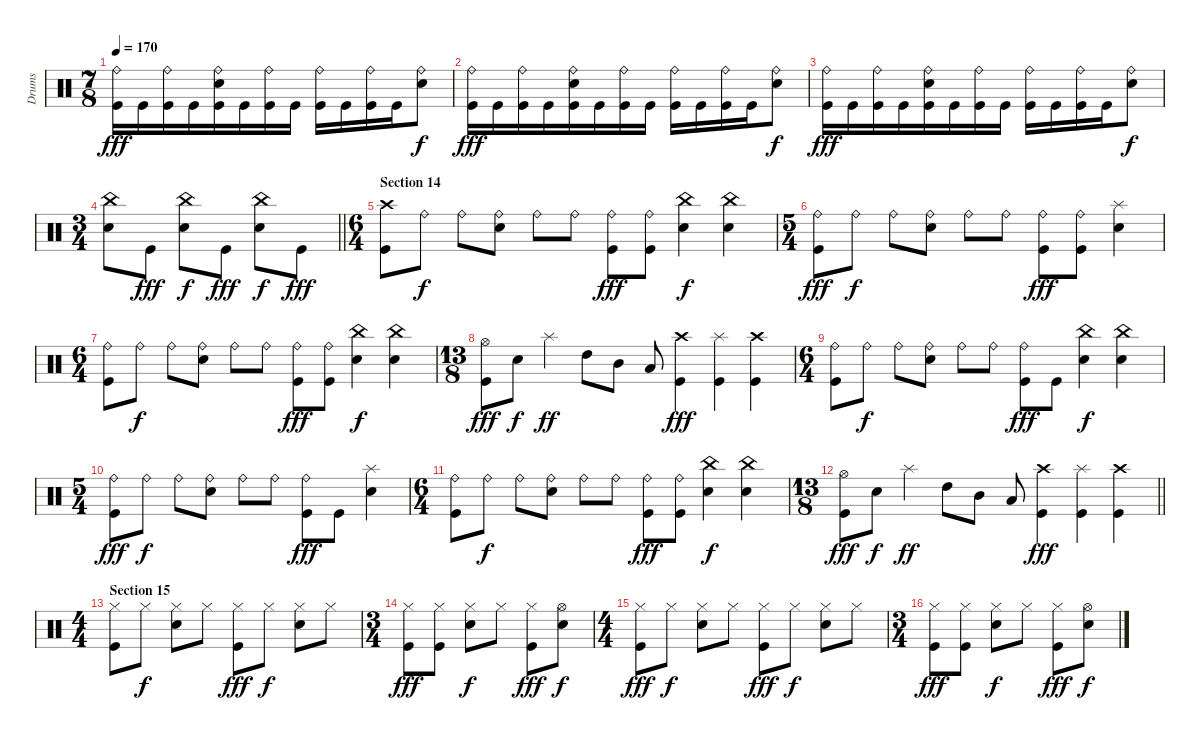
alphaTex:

\track ("Drums" "Drums") {instrument percussion}
\staff {score}
\articulation defaults
\ts (7 8)
\tempo 170
\clef neutral
\ks c
("Ride (bell)" "Kick (hit)").16{dy fff} "Kick (hit)".16 ("Ride (bell)" "Kick (hit)").16 "Kick (hit)".16 ("Ride (bell)" "Snare (hit) 2" "Kick (hit)").16 "Kick (hit)".16 ("Ride (bell)" "Kick (hit)").16 "Kick (hit)".16 ("Ride (bell)" "Kick (hit)").16 "Kick (hit)".16 ("Ride (bell)" "Kick (hit)").16 "Kick (hit)".16 ("Ride (bell)" "Snare (hit) 2").8{dy f} |
("Ride (bell)" "Kick (hit)").16{dy fff} "Kick (hit)".16 ("Ride (bell)" "Kick (hit)").16 "Kick (hit)".16 ("Ride (bell)" "Snare (hit) 2" "Kick (hit)").16 "Kick (hit)".16 ("Ride (bell)" "Kick (hit)").16 "Kick (hit)".16 ("Ride (bell)" "Kick (hit)").16 "Kick (hit)".16 ("Ride (bell)" "Kick (hit)").16 "Kick (hit)".16 ("Ride (bell)" "Snare (hit) 2").8{dy f} |
("Ride (bell)" "Kick (hit)").16{dy fff} "Kick (hit)".16 ("Ride (bell)" "Kick (hit)").16 "Kick (hit)".16 ("Ride (bell)" "Snare (hit) 2" "Kick (hit)").16 "Kick (hit)".16 ("Ride (bell)" "Kick (hit)").16 "Kick (hit)".16 ("Ride (bell)" "Kick (hit)").16 "Kick (hit)".16 ("Ride (bell)" "Kick (hit)").16 "Kick (hit)".16 ("Ride (bell)" "Snare (hit) 2").8{dy f} |
\ts (3 4)
\barLineRight lightlight
("China (hit)" "Snare (hit) 2").8 "Kick (hit)".8{dy fff} ("China (hit)" "Snare (hit) 2").8{dy f} "Kick (hit)".8{dy fff} ("China (hit)" "Snare (hit) 2").8{dy f} "Kick (hit)".8{dy fff} |
\ts (6 4)
\section ("" "Section 14")
("Crash high (hit)" "Kick (hit)").8 "Ride (bell)".8{dy f} "Ride (bell)".8 ("Ride (bell)" "Snare (hit) 2").8 "Ride (bell)".8 "Ride (bell)".8 ("Ride (bell)" "Kick (hit)").8{dy fff} ("Ride (bell)" "Kick (hit)").8 ("China (hit)" "Snare (hit) 2").4{dy f} ("China (hit)" "Snare (hit) 2").4 |
\ts (5 4)
("Ride (bell)" "Kick (hit)").8{dy fff} "Ride (bell)".8{dy f} "Ride (bell)".8 ("Ride (bell)" "Snare (hit) 2").8 "Ride (bell)".8 "Ride (bell)".8 ("Ride (bell)" "Kick (hit)").8{dy fff} ("Ride (bell)" "Kick (hit)").8 ("Splash (hit)" "Snare (hit) 2").4 |
\ts (6 4)
("Ride (bell)" "Kick (hit)").8 "Ride (bell)".8{dy f} "Ride (bell)".8 ("Ride (bell)" "Snare (hit) 2").8 "Ride (bell)".8 "Ride (bell)".8 ("Ride (bell)" "Kick (hit)").8{dy fff} ("Ride (bell)" "Kick (hit)").8 ("China (hit)" "Snare (hit) 2").4{dy f} ("China (hit)" "Snare (hit) 2").4 |
\ts (13 8)
("Hi-Hat (open)" "Kick (hit)").8{dy fff} "Snare (hit) 2".8{dy f} "Splash (hit)".4{dy ff} "High Tom (hit)".8 "Mid Tom (hit)".8 "Low Tom (hit)".8 ("Crash high (hit)" "Kick (hit)").4{dy fff} ("Splash (hit)" "Kick (hit)").4 ("Crash high (hit)" "Kick (hit)").4 |
\ts (6 4)
("Ride (bell)" "Kick (hit)").8 "Ride (bell)".8{dy f} "Ride (bell)".8 ("Ride (bell)" "Electric Snare (hit)").8 "Ride (bell)".8 "Ride (bell)".8 ("Ride (bell)" "Kick (hit)").8{dy fff} "Kick (hit)".8 ("China (hit)" "Electric Snare (hit)").4{dy f} ("China (hit)" "Electric Snare (hit)").4 |
\ts (5 4)
("Ride (bell)" "Kick (hit)").8{dy fff} "Ride (bell)".8{dy f} "Ride (bell)".8 ("Ride (bell)" "Electric Snare (hit)").8 "Ride (bell)".8 "Ride (bell)".8 ("Ride (bell)" "Kick (hit)").8{dy fff} "Kick (hit)".8 ("Splash (hit)" "Electric Snare (hit)").4 |
\ts (6 4)
("Ride (bell)" "Kick (hit)").8 "Ride (bell)".8{dy f} "Ride (bell)".8 ("Ride (bell)" "Electric Snare (hit)").8 "Ride (bell)".8 "Ride (bell)".8 ("Ride (bell)" "Kick (hit)").8{dy fff} ("Ride (bell)" "Kick (hit)").8 ("China (hit)" "Electric Snare (hit)").4{dy f} ("China (hit)" "Electric Snare (hit)").4 |
\ts (13 8)
\barLineRight lightlight
("Hi-Hat (open)" "Kick (hit)").8{dy fff} "Electric Snare (hit)".8{dy f} "Splash (hit)".4{dy ff} "High Tom (hit)".8 "Mid Tom (hit)".8 "Low Tom (hit)".8 ("Crash high (hit)" "Kick (hit)").4{dy fff} ("Splash (hit)" "Kick (hit)").4 ("Crash high (hit)" "Kick (hit)").4 |
\ts (4 4)
\section ("" "Section 15")
("Hi-Hat (closed)" "Kick (hit)").8 "Hi-Hat (closed)".8{dy f} ("Hi-Hat (closed)" "Snare (hit) 2").8 "Hi-Hat (closed)".8 ("Hi-Hat (closed)" "Kick (hit)").8{dy fff} "Hi-Hat (closed)".8{dy f} ("Hi-Hat (closed)" "Snare (hit) 2").8 "Hi-Hat (closed)".8 |
\ts (3 4)
("Hi-Hat (closed)" "Kick (hit)").8{dy fff} ("Hi-Hat (closed)" "Kick (hit)").8 ("Hi-Hat (closed)" "Snare (hit) 2").8{dy f} "Hi-Hat (closed)".8 ("Hi-Hat (closed)" "Kick (hit)").8{dy fff} ("Hi-Hat (open)" "Snare (hit) 2").8{dy f} |
\ts (4 4)
("Hi-Hat (closed)" "Kick (hit)").8{dy fff} "Hi-Hat (closed)".8{dy f} ("Hi-Hat (closed)" "Snare (hit) 2").8 "Hi-Hat (closed)".8 ("Hi-Hat (closed)" "Kick (hit)").8{dy fff} "Hi-Hat (closed)".8{dy f} ("Hi-Hat (closed)" "Snare (hit) 2").8 "Hi-Hat (closed)".8 |
\ts (3 4)
("Hi-Hat (closed)" "Kick (hit)").8{dy fff} ("Hi-Hat (closed)" "Kick (hit)").8 ("Hi-Hat (closed)" "Snare (hit) 2").8{dy f} "Hi-Hat (closed)".8 ("Hi-Hat (closed)" "Kick (hit)").8{dy fff} ("Hi-Hat (open)" "Snare (hit) 2").8{dy f}
